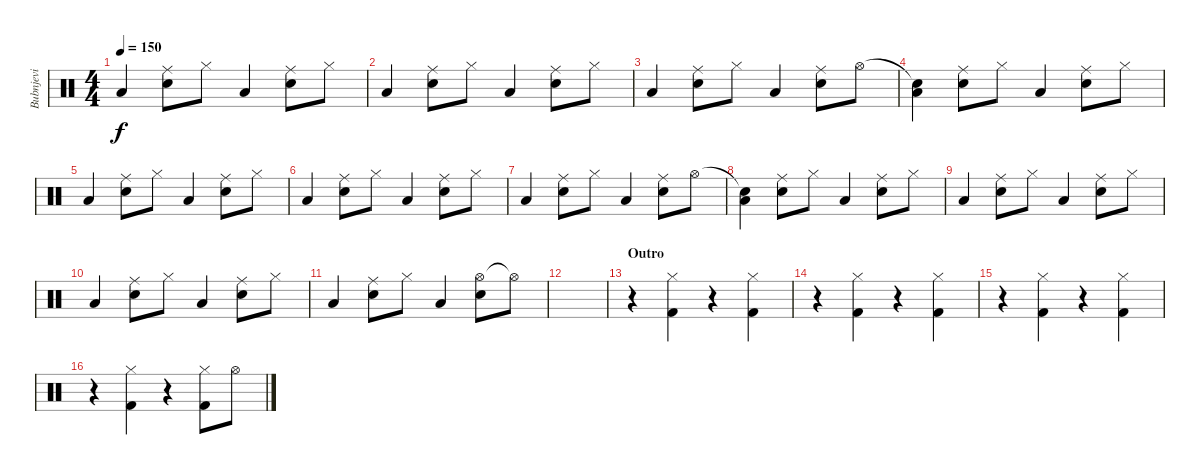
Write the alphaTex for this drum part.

\track ("Bubnjevi" "Bubnjevi") {instrument percussion}
\staff {score}
\articulation defaults
\ts (4 4)
\tempo 150
\clef neutral
\ks c "Low Tom (hit)".4{dy f}
("Ride (middle)" "Snare (hit) 2").8 "Hi-Hat (closed)".8 "Low Tom (hit)".4 ("Ride (middle)" "Snare (hit) 2").8 "Hi-Hat (closed)".8 |
"Low Tom (hit)".4 ("Ride (middle)" "Snare (hit) 2").8 "Hi-Hat (closed)".8 "Low Tom (hit)".4 ("Ride (middle)" "Snare (hit) 2").8 "Hi-Hat (closed)".8 |
"Low Tom (hit)".4 ("Ride (middle)" "Snare (hit) 2").8 "Hi-Hat (closed)".8 "Low Tom (hit)".4 ("Ride (middle)" "Snare (hit) 2").8 "Hi-Hat (open)".8 |
("Snare (hit)"{t} "Low Tom (hit)").4 ("Ride (middle)" "Snare (hit) 2").8 "Hi-Hat (closed)".8 "Low Tom (hit)".4 ("Ride (middle)" "Snare (hit) 2").8 "Hi-Hat (closed)".8 |
"Low Tom (hit)".4 ("Ride (middle)" "Snare (hit) 2").8 "Hi-Hat (closed)".8 "Low Tom (hit)".4 ("Ride (middle)" "Snare (hit) 2").8 "Hi-Hat (closed)".8 |
"Low Tom (hit)".4 ("Ride (middle)" "Snare (hit) 2").8 "Hi-Hat (closed)".8 "Low Tom (hit)".4 ("Ride (middle)" "Snare (hit) 2").8 "Hi-Hat (closed)".8 |
"Low Tom (hit)".4 ("Ride (middle)" "Snare (hit) 2").8 "Hi-Hat (closed)".8 "Low Tom (hit)".4 ("Ride (middle)" "Snare (hit) 2").8 "Hi-Hat (open)".8 |
("Snare (hit)"{t} "Low Tom (hit)").4 ("Ride (middle)" "Snare (hit) 2").8 "Hi-Hat (closed)".8 "Low Tom (hit)".4 ("Ride (middle)" "Snare (hit) 2").8 "Hi-Hat (closed)".8 |
"Low Tom (hit)".4 ("Ride (middle)" "Snare (hit) 2").8 "Hi-Hat (closed)".8 "Low Tom (hit)".4 ("Ride (middle)" "Snare (hit) 2").8 "Hi-Hat (closed)".8 |
"Low Tom (hit)".4 ("Ride (middle)" "Snare (hit) 2").8 "Hi-Hat (closed)".8 "Low Tom (hit)".4 ("Ride (middle)" "Snare (hit) 2").8 "Hi-Hat (closed)".8 |
"Low Tom (hit)".4 ("Ride (middle)" "Snare (hit) 2").8 "Hi-Hat (closed)".8 "Low Tom (hit)".4 ("Hi-Hat (open)" "Snare (hit) 2").8 "Hi-Hat (open)"{t}.8 |
|
\section ("" "Outro")
r.4 ("Hi-Hat (closed)" "Kick (hit) 2").4 r.4 ("Hi-Hat (closed)" "Kick (hit) 2").4 |
r.4 ("Hi-Hat (closed)" "Kick (hit) 2").4 r.4 ("Hi-Hat (closed)" "Kick (hit) 2").4 |
r.4 ("Hi-Hat (closed)" "Kick (hit) 2").4 r.4 ("Hi-Hat (closed)" "Kick (hit) 2").4 |
r.4 ("Hi-Hat (closed)" "Kick (hit) 2").4 r.4 ("Hi-Hat (closed)" "Kick (hit) 2").8 "Hi-Hat (open)".8
